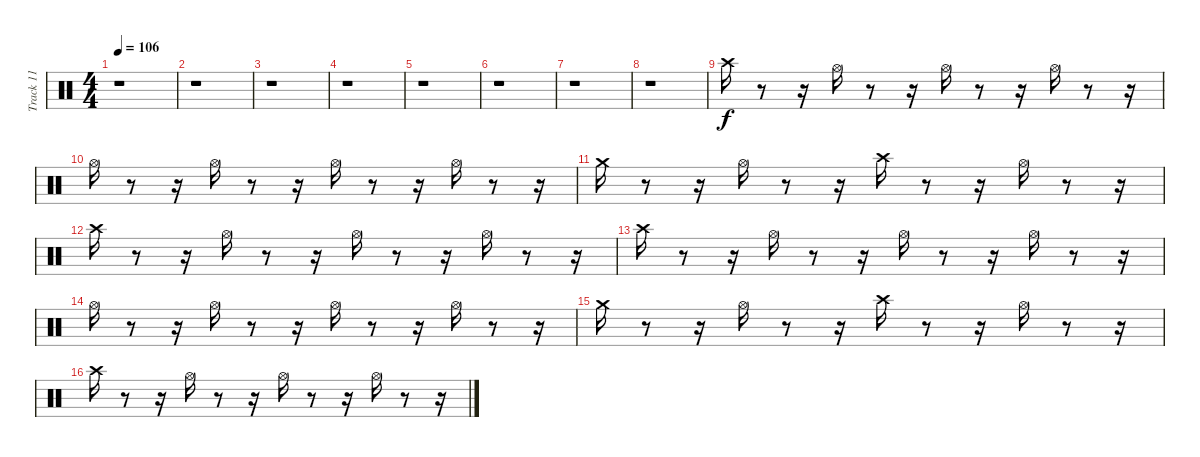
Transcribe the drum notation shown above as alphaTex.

\track ("Track 11" "Track 11") {instrument percussion}
\staff {score}
\articulation defaults
\ts (4 4)
\tempo 106
\clef neutral
\ks c
r.1{dy f} |
r.1 |
r.1 |
r.1 |
r.1 |
r.1 |
r.1 |
r.1 |
"Crash high (hit)".16 r.8 r.16 "Hi-Hat (open)".16 r.8 r.16 "Hi-Hat (open)".16 r.8 r.16 "Hi-Hat (open)".16 r.8 r.16 |
"Hi-Hat (open)".16 r.8 r.16 "Hi-Hat (open)".16 r.8 r.16 "Hi-Hat (open)".16 r.8 r.16 "Hi-Hat (open)".16 r.8 r.16 |
"Crash medium (hit)".16 r.8 r.16 "Hi-Hat (open)".16 r.8 r.16 "Crash high (hit)".16 r.8 r.16 "Hi-Hat (open)".16 r.8 r.16 |
"Crash high (hit)".16 r.8 r.16 "Hi-Hat (open)".16 r.8 r.16 "Hi-Hat (open)".16 r.8 r.16 "Hi-Hat (open)".16 r.8 r.16 |
"Crash high (hit)".16 r.8 r.16 "Hi-Hat (open)".16 r.8 r.16 "Hi-Hat (open)".16 r.8 r.16 "Hi-Hat (open)".16 r.8 r.16 |
"Hi-Hat (open)".16 r.8 r.16 "Hi-Hat (open)".16 r.8 r.16 "Hi-Hat (open)".16 r.8 r.16 "Hi-Hat (open)".16 r.8 r.16 |
"Crash medium (hit)".16 r.8 r.16 "Hi-Hat (open)".16 r.8 r.16 "Crash high (hit)".16 r.8 r.16 "Hi-Hat (open)".16 r.8 r.16 |
"Crash high (hit)".16 r.8 r.16 "Hi-Hat (open)".16 r.8 r.16 "Hi-Hat (open)".16 r.8 r.16 "Hi-Hat (open)".16 r.8 r.16
